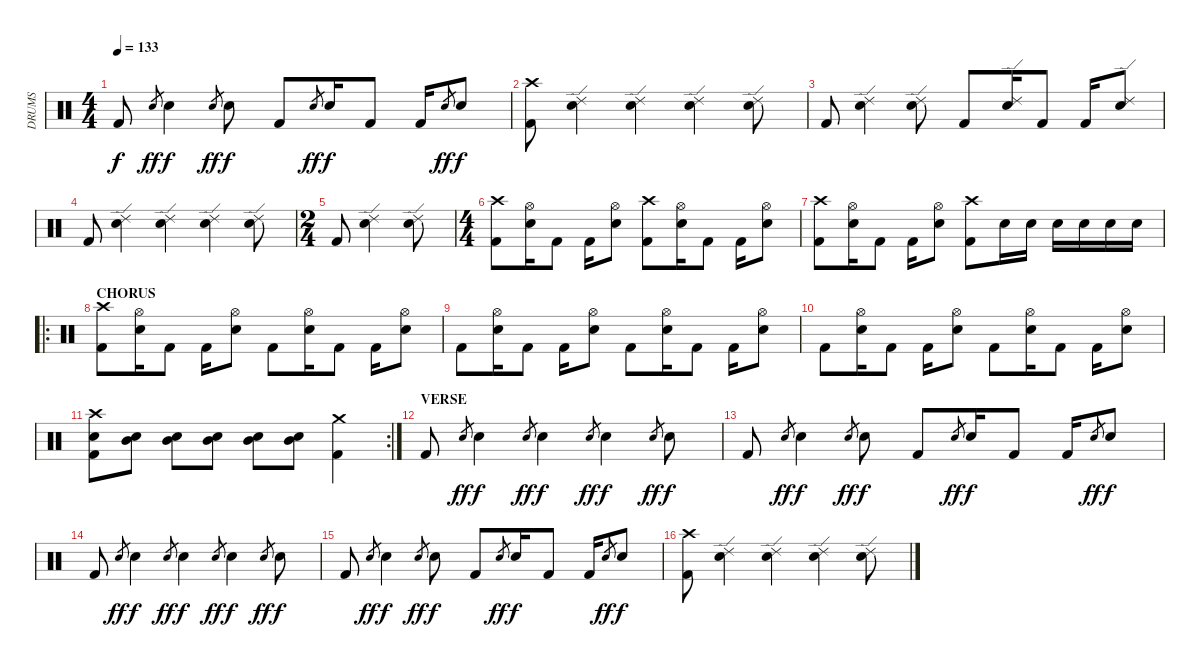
\track ("DRUMS" "DRUMS") {instrument percussion}
\staff {score}
\articulation defaults
\ts (4 4)
\tempo 133
\clef neutral
\ks c "Kick (hit) 2".8{dy f} "Electric Snare (hit)".8{gr dy ff} "Electric Snare (hit)".4{dy f} "Electric Snare (hit)".8{gr dy ff} "Electric Snare (hit)".8{dy f} "Kick (hit) 2".8 "Electric Snare (hit)".8{gr dy ff} "Electric Snare (hit)".16{dy f} "Kick (hit) 2".8 "Kick (hit) 2".16 "Electric Snare (hit)".8{gr dy ff} "Electric Snare (hit)".8{dy f}
|
("Crash high (hit)" "Kick (hit) 2").8 ("Ride (edge) 2" "Electric Snare (hit)").4 ("Ride (edge) 2" "Electric Snare (hit)").4 ("Ride (edge) 2" "Electric Snare (hit)").4 ("Ride (edge) 2" "Electric Snare (hit)").8 |
"Kick (hit) 2".8 ("Ride (edge) 2" "Electric Snare (hit)").4 ("Ride (edge) 2" "Electric Snare (hit)").8 "Kick (hit) 2".8 ("Ride (edge) 2" "Electric Snare (hit)").16 "Kick (hit) 2".8 "Kick (hit) 2".16 ("Ride (edge) 2" "Electric Snare (hit)").8 |
"Kick (hit) 2".8 ("Ride (edge) 2" "Electric Snare (hit)").4 ("Ride (edge) 2" "Electric Snare (hit)").4 ("Ride (edge) 2" "Electric Snare (hit)").4 ("Ride (edge) 2" "Electric Snare (hit)").8 |
\ts (2 4)
"Kick (hit) 2".8 ("Ride (edge) 2" "Electric Snare (hit)").4 ("Ride (edge) 2" "Electric Snare (hit)").8 |
\ts (4 4)
("Crash high (hit)" "Kick (hit) 2").8 ("Hi-Hat (open)" "Electric Snare (hit)").16 "Kick (hit) 2".8 "Kick (hit) 2".16 ("Hi-Hat (open)" "Electric Snare (hit)").8 ("Crash high (hit)" "Kick (hit) 2").8 ("Hi-Hat (open)" "Electric Snare (hit)").16 "Kick (hit) 2".8 "Kick (hit) 2".16 ("Hi-Hat (open)" "Electric Snare (hit)").8 |
("Crash high (hit)" "Kick (hit) 2").8 ("Hi-Hat (open)" "Electric Snare (hit)").16 "Kick (hit) 2".8 "Kick (hit) 2".16 ("Hi-Hat (open)" "Electric Snare (hit)").8 ("Crash high (hit)" "Kick (hit) 2").8 "Electric Snare (hit)".16 "Electric Snare (hit)".16 "Electric Snare (hit)".16 "Electric Snare (hit)".16 "Electric Snare (hit)".16 "Electric Snare (hit)".16 |
\ro
\section ("" "CHORUS")
("Crash high (hit)" "Kick (hit) 2").8 ("Hi-Hat (open)" "Electric Snare (hit)").16 "Kick (hit) 2".8 "Kick (hit) 2".16 ("Hi-Hat (open)" "Electric Snare (hit)").8 "Kick (hit) 2".8 ("Hi-Hat (open)" "Electric Snare (hit)").16 "Kick (hit) 2".8 "Kick (hit) 2".16 ("Hi-Hat (open)" "Electric Snare (hit)").8 |
"Kick (hit) 2".8 ("Hi-Hat (open)" "Electric Snare (hit)").16 "Kick (hit) 2".8 "Kick (hit) 2".16 ("Hi-Hat (open)" "Electric Snare (hit)").8 "Kick (hit) 2".8 ("Hi-Hat (open)" "Electric Snare (hit)").16 "Kick (hit) 2".8 "Kick (hit) 2".16 ("Hi-Hat (open)" "Electric Snare (hit)").8 |
"Kick (hit) 2".8 ("Hi-Hat (open)" "Electric Snare (hit)").16 "Kick (hit) 2".8 "Kick (hit) 2".16 ("Hi-Hat (open)" "Electric Snare (hit)").8 "Kick (hit) 2".8 ("Hi-Hat (open)" "Electric Snare (hit)").16 "Kick (hit) 2".8 "Kick (hit) 2".16 ("Hi-Hat (open)" "Electric Snare (hit)").8 |
\rc 2
("Crash high (hit)" "Electric Snare (hit)" "Kick (hit) 2").8 ("Mid Tom (hit)" "Electric Snare (hit)").8 ("Mid Tom (hit)" "Electric Snare (hit)").8 ("Mid Tom (hit)" "Electric Snare (hit)").8 ("Mid Tom (hit)" "Electric Snare (hit)").8 ("Mid Tom (hit)" "Electric Snare (hit)").8 ("Crash medium (hit)" "Kick (hit) 2").4 |
\section ("" "VERSE")
"Kick (hit) 2".8 "Electric Snare (hit)".8{gr dy ff} "Electric Snare (hit)".4{dy f} "Electric Snare (hit)".8{gr dy ff} "Electric Snare (hit)".4{dy f} "Electric Snare (hit)".8{gr dy ff} "Electric Snare (hit)".4{dy f} "Electric Snare (hit)".8{gr dy ff} "Electric Snare (hit)".8{dy f} |
"Kick (hit) 2".8 "Electric Snare (hit)".8{gr dy ff} "Electric Snare (hit)".4{dy f} "Electric Snare (hit)".8{gr dy ff} "Electric Snare (hit)".8{dy f} "Kick (hit) 2".8 "Electric Snare (hit)".8{gr dy ff} "Electric Snare (hit)".16{dy f} "Kick (hit) 2".8 "Kick (hit) 2".16 "Electric Snare (hit)".8{gr dy ff} "Electric Snare (hit)".8{dy f} |
"Kick (hit) 2".8 "Electric Snare (hit)".8{gr dy ff} "Electric Snare (hit)".4{dy f} "Electric Snare (hit)".8{gr dy ff} "Electric Snare (hit)".4{dy f} "Electric Snare (hit)".8{gr dy ff} "Electric Snare (hit)".4{dy f} "Electric Snare (hit)".8{gr dy ff} "Electric Snare (hit)".8{dy f} |
"Kick (hit) 2".8 "Electric Snare (hit)".8{gr dy ff} "Electric Snare (hit)".4{dy f} "Electric Snare (hit)".8{gr dy ff} "Electric Snare (hit)".8{dy f} "Kick (hit) 2".8 "Electric Snare (hit)".8{gr dy ff} "Electric Snare (hit)".16{dy f} "Kick (hit) 2".8 "Kick (hit) 2".16 "Electric Snare (hit)".8{gr dy ff} "Electric Snare (hit)".8{dy f} |
("Crash high (hit)" "Kick (hit) 2").8 ("Ride (edge) 2" "Electric Snare (hit)").4 ("Ride (edge) 2" "Electric Snare (hit)").4 ("Ride (edge) 2" "Electric Snare (hit)").4 ("Ride (edge) 2" "Electric Snare (hit)").8
